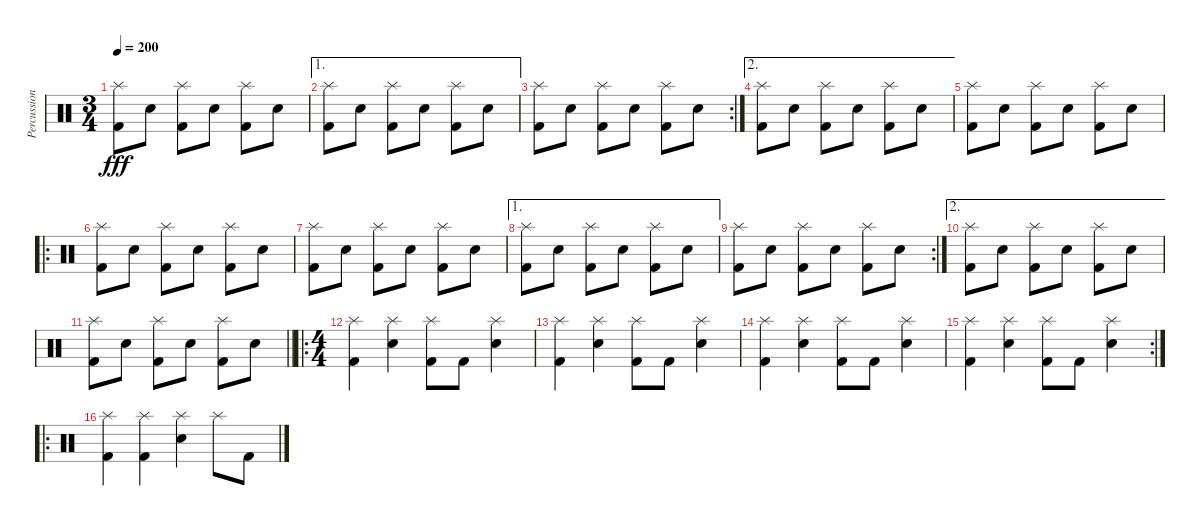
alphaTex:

\track ("Percussion" "Percussion") {instrument percussion}
\staff {score}
\articulation defaults
\ts (3 4)
\tempo 200
\clef neutral
\ks c
("Splash (hit)" "Kick (hit) 2").8{dy fff} "Electric Snare (hit)".8 ("Splash (hit)" "Kick (hit) 2").8 "Electric Snare (hit)".8 ("Splash (hit)" "Kick (hit) 2").8 "Electric Snare (hit)".8 |
\ae 1
("Splash (hit)" "Kick (hit) 2").8 "Electric Snare (hit)".8 ("Splash (hit)" "Kick (hit) 2").8 "Electric Snare (hit)".8 ("Splash (hit)" "Kick (hit) 2").8 "Electric Snare (hit)".8 |
\rc 2
("Splash (hit)" "Kick (hit) 2").8 "Electric Snare (hit)".8 ("Splash (hit)" "Kick (hit) 2").8 "Electric Snare (hit)".8 ("Splash (hit)" "Kick (hit) 2").8 "Electric Snare (hit)".8 |
\ae 2
("Splash (hit)" "Kick (hit) 2").8 "Electric Snare (hit)".8 ("Splash (hit)" "Kick (hit) 2").8 "Electric Snare (hit)".8 ("Splash (hit)" "Kick (hit) 2").8 "Electric Snare (hit)".8 |
("Splash (hit)" "Kick (hit) 2").8 "Electric Snare (hit)".8 ("Splash (hit)" "Kick (hit) 2").8 "Electric Snare (hit)".8 ("Splash (hit)" "Kick (hit) 2").8 "Electric Snare (hit)".8 |
\ro
("Splash (hit)" "Kick (hit) 2").8 "Electric Snare (hit)".8 ("Splash (hit)" "Kick (hit) 2").8 "Electric Snare (hit)".8 ("Splash (hit)" "Kick (hit) 2").8 "Electric Snare (hit)".8 |
("Splash (hit)" "Kick (hit) 2").8 "Electric Snare (hit)".8 ("Splash (hit)" "Kick (hit) 2").8 "Electric Snare (hit)".8 ("Splash (hit)" "Kick (hit) 2").8 "Electric Snare (hit)".8 |
\ae 1
("Splash (hit)" "Kick (hit) 2").8 "Electric Snare (hit)".8 ("Splash (hit)" "Kick (hit) 2").8 "Electric Snare (hit)".8 ("Splash (hit)" "Kick (hit) 2").8 "Electric Snare (hit)".8 |
\rc 2
("Splash (hit)" "Kick (hit) 2").8 "Electric Snare (hit)".8 ("Splash (hit)" "Kick (hit) 2").8 "Electric Snare (hit)".8 ("Splash (hit)" "Kick (hit) 2").8 "Electric Snare (hit)".8 |
\ae 2
("Splash (hit)" "Kick (hit) 2").8 "Electric Snare (hit)".8 ("Splash (hit)" "Kick (hit) 2").8 "Electric Snare (hit)".8 ("Splash (hit)" "Kick (hit) 2").8 "Electric Snare (hit)".8 |
\barLineRight lightlight
("Splash (hit)" "Kick (hit) 2").8 "Electric Snare (hit)".8 ("Splash (hit)" "Kick (hit) 2").8 "Electric Snare (hit)".8 ("Splash (hit)" "Kick (hit) 2").8 "Electric Snare (hit)".8 |
\ro
\ts (4 4)
("Splash (hit)" "Kick (hit) 2").4 ("Splash (hit)" "Electric Snare (hit)").4 ("Splash (hit)" "Kick (hit) 2").8 "Kick (hit) 2".8 ("Splash (hit)" "Electric Snare (hit)").4 |
("Splash (hit)" "Kick (hit) 2").4 ("Splash (hit)" "Electric Snare (hit)").4 ("Splash (hit)" "Kick (hit) 2").8 "Kick (hit) 2".8 ("Splash (hit)" "Electric Snare (hit)").4 |
("Splash (hit)" "Kick (hit) 2").4 ("Splash (hit)" "Electric Snare (hit)").4 ("Splash (hit)" "Kick (hit) 2").8 "Kick (hit) 2".8 ("Splash (hit)" "Electric Snare (hit)").4 |
\rc 2
("Splash (hit)" "Kick (hit) 2").4 ("Splash (hit)" "Electric Snare (hit)").4 ("Splash (hit)" "Kick (hit) 2").8 "Kick (hit) 2".8 ("Splash (hit)" "Electric Snare (hit)").4 |
\ro
("Splash (hit)" "Kick (hit) 2").4 ("Splash (hit)" "Kick (hit) 2").4 ("Splash (hit)" "Electric Snare (hit)").4 "Splash (hit)".8 "Kick (hit) 2".8
